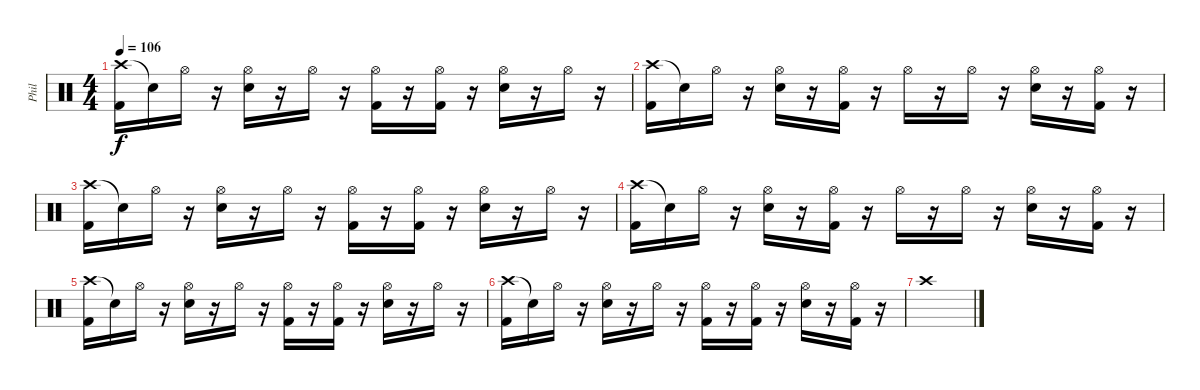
\track ("Phil" "Phil") {instrument percussion}
\staff {score}
\articulation defaults
\ts (4 4)
\tempo 106
\clef neutral
\ks c
("Crash high (hit)" "Kick (hit) 2").16{dy f} "Snare (hit)"{t}.16 "Hi-Hat (open)".16 r.16 ("Hi-Hat (open)" "Snare (hit) 2").16 r.16 "Hi-Hat (open)".16 r.16 ("Hi-Hat (open)" "Kick (hit) 2").16 r.16 ("Hi-Hat (open)" "Kick (hit) 2").16 r.16 ("Hi-Hat (open)" "Snare (hit) 2").16 r.16 "Hi-Hat (open)".16 r.16 |
("Crash high (hit)" "Kick (hit) 2").16 "Snare (hit)"{t}.16 "Hi-Hat (open)".16 r.16 ("Hi-Hat (open)" "Snare (hit) 2").16 r.16 ("Hi-Hat (open)" "Kick (hit) 2").16 r.16 "Hi-Hat (open)".16 r.16 "Hi-Hat (open)".16 r.16 ("Hi-Hat (open)" "Snare (hit) 2").16 r.16 ("Hi-Hat (open)" "Kick (hit) 2").16 r.16 |
("Crash high (hit)" "Kick (hit) 2").16 "Snare (hit)"{t}.16 "Hi-Hat (open)".16 r.16 ("Hi-Hat (open)" "Snare (hit) 2").16 r.16 "Hi-Hat (open)".16 r.16 ("Hi-Hat (open)" "Kick (hit) 2").16 r.16 ("Hi-Hat (open)" "Kick (hit) 2").16 r.16 ("Hi-Hat (open)" "Snare (hit) 2").16 r.16 "Hi-Hat (open)".16 r.16 |
("Crash high (hit)" "Kick (hit) 2").16 "Snare (hit)"{t}.16 "Hi-Hat (open)".16 r.16 ("Hi-Hat (open)" "Snare (hit) 2").16 r.16 ("Hi-Hat (open)" "Kick (hit) 2").16 r.16 "Hi-Hat (open)".16 r.16 "Hi-Hat (open)".16 r.16 ("Hi-Hat (open)" "Snare (hit) 2").16 r.16 ("Hi-Hat (open)" "Kick (hit) 2").16 r.16 |
("Crash high (hit)" "Kick (hit) 2").16 "Snare (hit)"{t}.16 "Hi-Hat (open)".16 r.16 ("Hi-Hat (open)" "Snare (hit) 2").16 r.16 "Hi-Hat (open)".16 r.16 ("Hi-Hat (open)" "Kick (hit) 2").16 r.16 ("Hi-Hat (open)" "Kick (hit) 2").16 r.16 ("Hi-Hat (open)" "Snare (hit) 2").16 r.16 "Hi-Hat (open)".16 r.16 |
("Crash high (hit)" "Kick (hit) 2").16 "Snare (hit)"{t}.16 "Hi-Hat (open)".16 r.16 ("Hi-Hat (open)" "Snare (hit) 2").16 r.16 "Hi-Hat (open)".16 r.16 ("Hi-Hat (open)" "Kick (hit) 2").16 r.16 ("Hi-Hat (open)" "Kick (hit) 2").16 r.16 ("Hi-Hat (open)" "Snare (hit) 2").16 r.16 ("Hi-Hat (open)" "Kick (hit) 2").16 r.16 |
"Crash high (hit)".1
